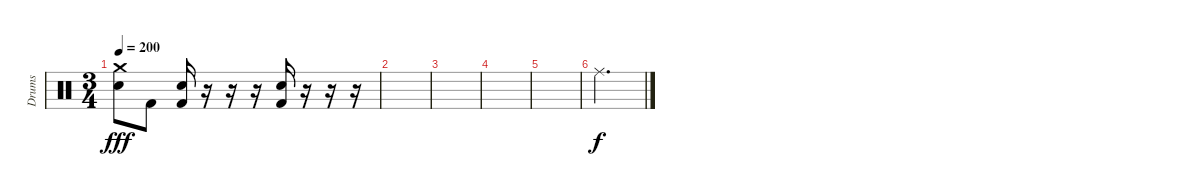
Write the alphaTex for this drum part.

\track ("Drums" "Drums") {instrument percussion}
\staff {score}
\articulation defaults
\ts (3 4)
\tempo 200
\clef neutral
\ks c
("Crash medium (hit)" "Snare (hit) 2").8{dy fff} "Kick (hit) 2".8 ("Kick (hit) 2" "Snare (hit) 2").16 r.16 r.16 r.16 ("Kick (hit) 2" "Snare (hit) 2").16 r.16 r.16 r.16 |
|
|
|
|
"Ride (middle)".2{d dy f}
